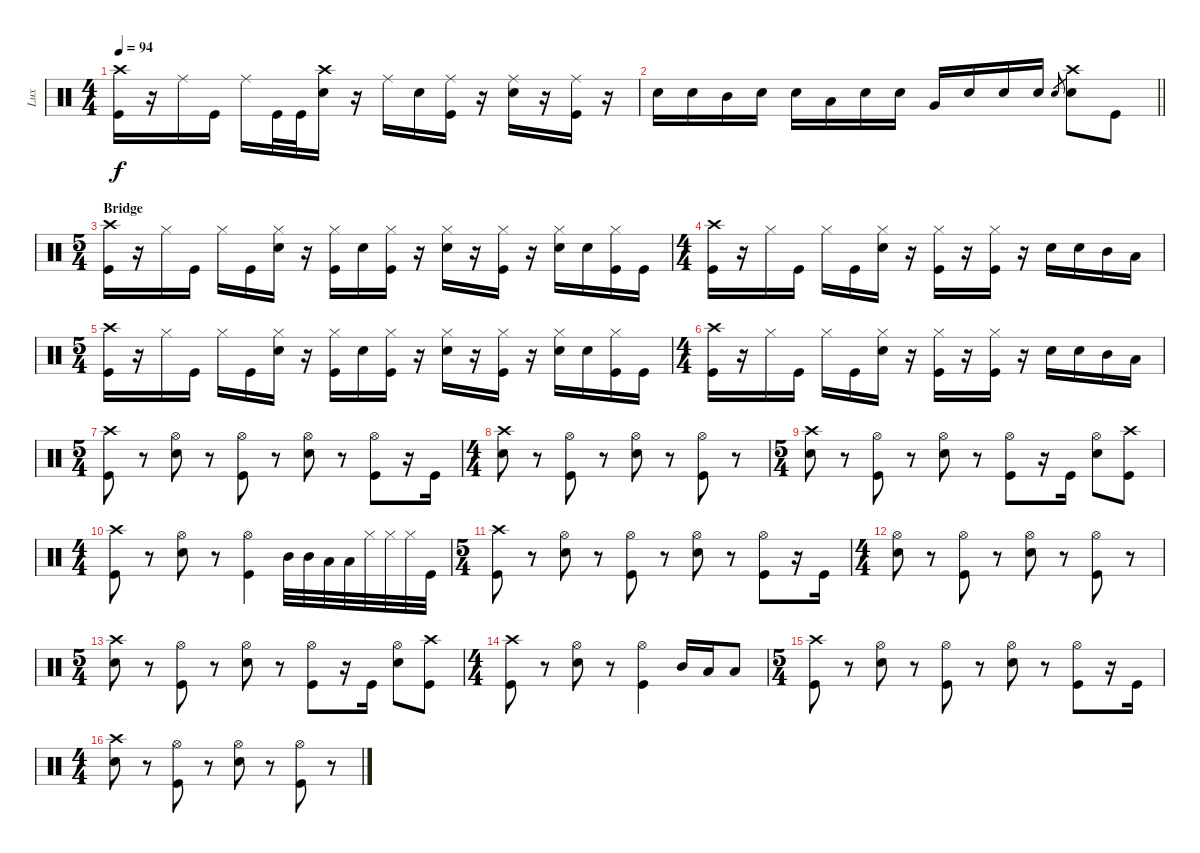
\track ("Lux" "Lux") {instrument percussion}
\staff {score}
\articulation defaults
\ts (4 4)
\tempo 94
\clef neutral
\ks c
("Crash high (hit)" "Kick (hit)").16{dy f} r.16 "Ride (middle)".16 "Kick (hit)".16 "Ride (middle)".16 "Kick (hit)".32 "Kick (hit)".32 ("Crash high (hit)" "Snare (hit) 2").16 r.16 "Ride (middle)".16 "Snare (hit) 2".16 ("Ride (middle)" "Kick (hit)").16 r.16 ("Ride (middle)" "Snare (hit) 2").16 r.16 ("Ride (middle)" "Kick (hit)").16 r.16 |
\barLineRight lightlight "Snare (hit) 2".16 "Snare (hit) 2".16 "Mid Tom (hit)".16 "Snare (hit) 2".16 "Snare (hit) 2".16 "Low Tom (hit)".16 "Snare (hit) 2".16 "Snare (hit) 2".16 "Very Low Tom (hit)".16 "Snare (hit) 2".16 "Snare (hit) 2".16 "Snare (hit) 2".16 "Snare (hit) 2".8{gr}
("Crash high (hit)" "Snare (hit) 2").8 "Kick (hit)".8 |
\ts (5 4)
\section ("" "Bridge")
("Crash high (hit)" "Kick (hit)").16 r.16 "Hi-Hat (closed)".16 "Kick (hit)".16 "Hi-Hat (closed)".16 "Kick (hit)".16 ("Hi-Hat (closed)" "Snare (hit) 2").16 r.16 ("Hi-Hat (closed)" "Kick (hit)").16 "Snare (hit) 2".16 ("Hi-Hat (closed)" "Kick (hit)").16 r.16 ("Hi-Hat (closed)" "Snare (hit) 2").16 r.16 ("Hi-Hat (closed)" "Kick (hit)").16 r.16 ("Hi-Hat (closed)" "Snare (hit) 2").16 "Snare (hit) 2".16 ("Hi-Hat (closed)" "Kick (hit)").16 "Kick (hit)".16 |
\ts (4 4)
("Crash high (hit)" "Kick (hit)").16 r.16 "Hi-Hat (closed)".16 "Kick (hit)".16 "Hi-Hat (closed)".16 "Kick (hit)".16 ("Hi-Hat (closed)" "Snare (hit) 2").16 r.16 ("Hi-Hat (closed)" "Kick (hit)").16 r.16 ("Hi-Hat (closed)" "Kick (hit)").16 r.16 "Snare (hit) 2".16 "Snare (hit) 2".16 "Mid Tom (hit)".16 "Low Tom (hit)".16 |
\ts (5 4)
("Crash high (hit)" "Kick (hit)").16 r.16 "Hi-Hat (closed)".16 "Kick (hit)".16 "Hi-Hat (closed)".16 "Kick (hit)".16 ("Hi-Hat (closed)" "Snare (hit) 2").16 r.16 ("Hi-Hat (closed)" "Kick (hit)").16 "Snare (hit) 2".16 ("Hi-Hat (closed)" "Kick (hit)").16 r.16 ("Hi-Hat (closed)" "Snare (hit) 2").16 r.16 ("Hi-Hat (closed)" "Kick (hit)").16 r.16 ("Hi-Hat (closed)" "Snare (hit) 2").16 "Snare (hit) 2".16 ("Hi-Hat (closed)" "Kick (hit)").16 "Kick (hit)".16 |
\ts (4 4)
("Crash high (hit)" "Kick (hit)").16 r.16 "Hi-Hat (closed)".16 "Kick (hit)".16 "Hi-Hat (closed)".16 "Kick (hit)".16 ("Hi-Hat (closed)" "Snare (hit) 2").16 r.16 ("Hi-Hat (closed)" "Kick (hit)").16 r.16 ("Hi-Hat (closed)" "Kick (hit)").16 r.16 "Snare (hit) 2".16 "Snare (hit) 2".16 "Mid Tom (hit)".16 "Low Tom (hit)".16 |
\ts (5 4)
("Crash high (hit)" "Kick (hit)").8 r.8 ("Hi-Hat (open)" "Snare (hit) 2").8 r.8 ("Hi-Hat (open)" "Kick (hit)").8 r.8 ("Hi-Hat (open)" "Snare (hit) 2").8 r.8 ("Hi-Hat (open)" "Kick (hit)").8 r.16 "Kick (hit)".16 |
\ts (4 4)
("Crash high (hit)" "Snare (hit) 2").8 r.8 ("Hi-Hat (open)" "Kick (hit)").8 r.8 ("Hi-Hat (open)" "Snare (hit) 2").8 r.8 ("Hi-Hat (open)" "Kick (hit)").8 r.8 |
\ts (5 4)
("Crash high (hit)" "Snare (hit) 2").8 r.8 ("Hi-Hat (open)" "Kick (hit)").8 r.8 ("Hi-Hat (open)" "Snare (hit) 2").8 r.8 ("Hi-Hat (open)" "Kick (hit)").8 r.16 "Kick (hit)".16 ("Hi-Hat (open)" "Snare (hit) 2").8 ("Crash high (hit)" "Kick (hit)").8 |
\ts (4 4)
("Crash high (hit)" "Kick (hit)").8 r.8 ("Hi-Hat (open)" "Snare (hit) 2").8 r.8 ("Hi-Hat (open)" "Kick (hit)").4 "Mid Tom (hit)".32 "Mid Tom (hit)".32 "Low Tom (hit)".32 "Low Tom (hit)".32 "Hi-Hat (closed)".32 "Hi-Hat (closed)".32 "Hi-Hat (closed)".32 "Kick (hit)".32 |
\ts (5 4)
("Crash high (hit)" "Kick (hit)").8 r.8 ("Hi-Hat (open)" "Snare (hit) 2").8 r.8 ("Hi-Hat (open)" "Kick (hit)").8 r.8 ("Hi-Hat (open)" "Snare (hit) 2").8 r.8 ("Hi-Hat (open)" "Kick (hit)").8 r.16 "Kick (hit)".16 |
\ts (4 4)
("Hi-Hat (open)" "Snare (hit) 2").8 r.8 ("Hi-Hat (open)" "Kick (hit)").8 r.8 ("Hi-Hat (open)" "Snare (hit) 2").8 r.8 ("Hi-Hat (open)" "Kick (hit)").8 r.8 |
\ts (5 4)
("Crash high (hit)" "Snare (hit) 2").8 r.8 ("Hi-Hat (open)" "Kick (hit)").8 r.8 ("Hi-Hat (open)" "Snare (hit) 2").8 r.8 ("Hi-Hat (open)" "Kick (hit)").8 r.16 "Kick (hit)".16 ("Hi-Hat (open)" "Snare (hit) 2").8 ("Crash high (hit)" "Kick (hit)").8 |
\ts (4 4)
("Crash high (hit)" "Kick (hit)").8 r.8 ("Hi-Hat (open)" "Snare (hit) 2").8 r.8 ("Hi-Hat (open)" "Kick (hit)").4 "Mid Tom (hit)".16 "Low Tom (hit)".16 "Low Tom (hit)".8 |
\ts (5 4)
("Crash high (hit)" "Kick (hit)").8 r.8 ("Hi-Hat (open)" "Snare (hit) 2").8 r.8 ("Hi-Hat (open)" "Kick (hit)").8 r.8 ("Hi-Hat (open)" "Snare (hit) 2").8 r.8 ("Hi-Hat (open)" "Kick (hit)").8 r.16 "Kick (hit)".16 |
\ts (4 4)
("Crash high (hit)" "Snare (hit) 2").8 r.8 ("Hi-Hat (open)" "Kick (hit)").8 r.8 ("Hi-Hat (open)" "Snare (hit) 2").8 r.8 ("Hi-Hat (open)" "Kick (hit)").8 r.8
